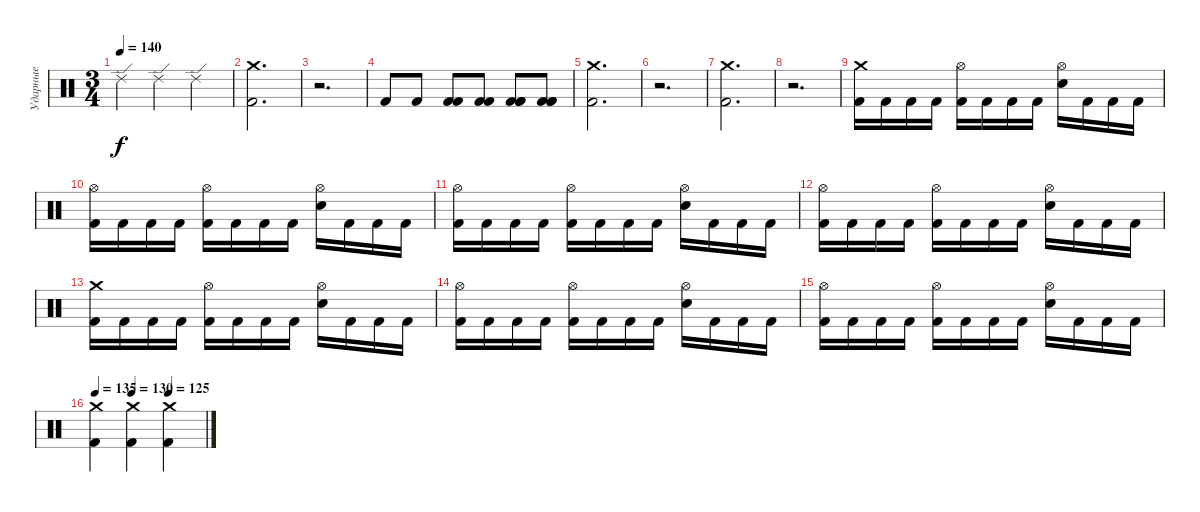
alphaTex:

\track ("Ударные" "Ударные") {instrument percussion}
\staff {score}
\articulation defaults
\ts (3 4)
\tempo 140
\clef neutral
\ks c "Ride (edge) 2".4{dy f} "Ride (edge) 2".4 "Ride (edge) 2".4
|
("Kick (hit) 2" "Crash medium (hit)").2{d} |
r.2{d} |
"Kick (hit) 2".8 "Kick (hit) 2".8 ("Kick (hit) 2" "Kick (hit) 2").8 ("Kick (hit) 2" "Kick (hit) 2").8 ("Kick (hit) 2" "Kick (hit) 2" "Kick (hit) 2").8 ("Kick (hit) 2" "Kick (hit) 2" "Kick (hit) 2").8 |
("Kick (hit) 2" "Crash medium (hit)").2{d} |
r.2{d} |
("Kick (hit) 2" "Crash medium (hit)").2{d} |
r.2{d} |
("Kick (hit) 2" "Crash medium (hit)").16 "Kick (hit) 2".16 "Kick (hit) 2".16 "Kick (hit) 2".16 ("Kick (hit) 2" "Hi-Hat (open)").16 "Kick (hit) 2".16 "Kick (hit) 2".16 "Kick (hit) 2".16 ("Electric Snare (hit)" "Hi-Hat (open)").16 "Kick (hit) 2".16 "Kick (hit) 2".16 "Kick (hit) 2".16 |
("Kick (hit) 2" "Hi-Hat (open)").16 "Kick (hit) 2".16 "Kick (hit) 2".16 "Kick (hit) 2".16 ("Kick (hit) 2" "Hi-Hat (open)").16 "Kick (hit) 2".16 "Kick (hit) 2".16 "Kick (hit) 2".16 ("Electric Snare (hit)" "Hi-Hat (open)").16 "Kick (hit) 2".16 "Kick (hit) 2".16 "Kick (hit) 2".16 |
("Kick (hit) 2" "Hi-Hat (open)").16 "Kick (hit) 2".16 "Kick (hit) 2".16 "Kick (hit) 2".16 ("Kick (hit) 2" "Hi-Hat (open)").16 "Kick (hit) 2".16 "Kick (hit) 2".16 "Kick (hit) 2".16 ("Electric Snare (hit)" "Hi-Hat (open)").16 "Kick (hit) 2".16 "Kick (hit) 2".16 "Kick (hit) 2".16 |
("Kick (hit) 2" "Hi-Hat (open)").16 "Kick (hit) 2".16 "Kick (hit) 2".16 "Kick (hit) 2".16 ("Kick (hit) 2" "Hi-Hat (open)").16 "Kick (hit) 2".16 "Kick (hit) 2".16 "Kick (hit) 2".16 ("Electric Snare (hit)" "Hi-Hat (open)").16 "Kick (hit) 2".16 "Kick (hit) 2".16 "Kick (hit) 2".16 |
("Kick (hit) 2" "Crash medium (hit)").16 "Kick (hit) 2".16 "Kick (hit) 2".16 "Kick (hit) 2".16 ("Kick (hit) 2" "Hi-Hat (open)").16 "Kick (hit) 2".16 "Kick (hit) 2".16 "Kick (hit) 2".16 ("Electric Snare (hit)" "Hi-Hat (open)").16 "Kick (hit) 2".16 "Kick (hit) 2".16 "Kick (hit) 2".16 |
("Kick (hit) 2" "Hi-Hat (open)").16 "Kick (hit) 2".16 "Kick (hit) 2".16 "Kick (hit) 2".16 ("Kick (hit) 2" "Hi-Hat (open)").16 "Kick (hit) 2".16 "Kick (hit) 2".16 "Kick (hit) 2".16 ("Electric Snare (hit)" "Hi-Hat (open)").16 "Kick (hit) 2".16 "Kick (hit) 2".16 "Kick (hit) 2".16 |
("Kick (hit) 2" "Hi-Hat (open)").16 "Kick (hit) 2".16 "Kick (hit) 2".16 "Kick (hit) 2".16 ("Kick (hit) 2" "Hi-Hat (open)").16 "Kick (hit) 2".16 "Kick (hit) 2".16 "Kick (hit) 2".16 ("Electric Snare (hit)" "Hi-Hat (open)").16 "Kick (hit) 2".16 "Kick (hit) 2".16 "Kick (hit) 2".16 |
\tempo 135
\tempo (130 0.3333333333333333)
\tempo (125 0.6666666666666666)
("Kick (hit) 2" "Crash medium (hit)").4 ("Kick (hit) 2" "Crash medium (hit)").4 ("Kick (hit) 2" "Crash medium (hit)").4
